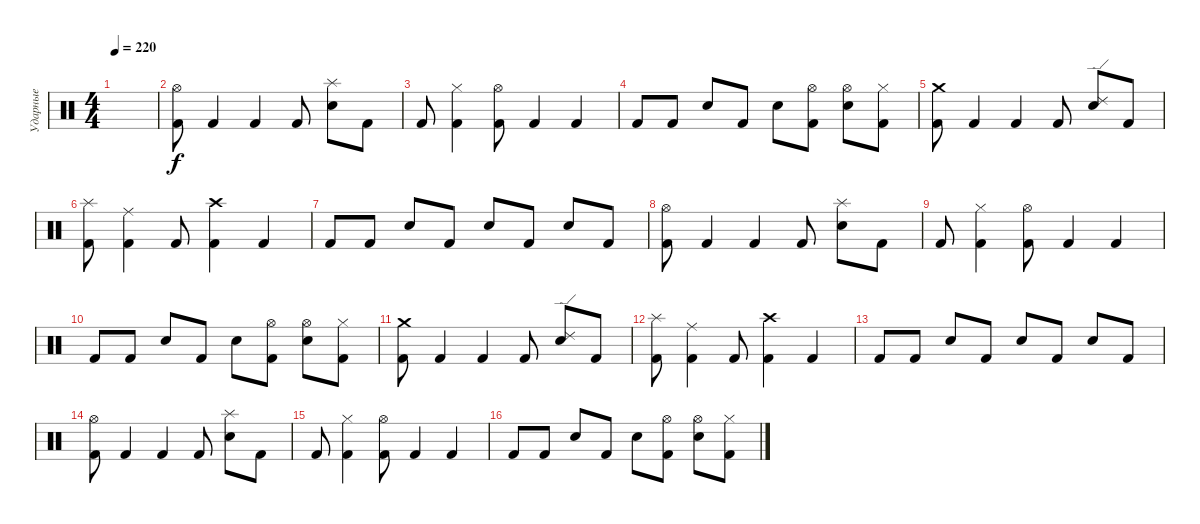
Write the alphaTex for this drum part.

\track ("Ударные" "Ударные") {instrument percussion}
\staff {score}
\articulation defaults
\ts (4 4)
\tempo 220
\clef neutral
\ks c
|
("Kick (hit) 2" "Hi-Hat (open)").8 "Kick (hit) 2".4 "Kick (hit) 2".4 "Kick (hit) 2".8 ("Snare (hit) 2" "Splash (hit)").8 "Kick (hit) 2".8 |
"Kick (hit) 2".8 ("Kick (hit) 2" "Hi-Hat (closed)").4 ("Kick (hit) 2" "Hi-Hat (open)").8 "Kick (hit) 2".4 "Kick (hit) 2".4 |
"Kick (hit) 2".8 "Kick (hit) 2".8 "Snare (hit) 2".8 "Kick (hit) 2".8 "Snare (hit) 2".8 ("Kick (hit) 2" "Hi-Hat (open)").8 ("Snare (hit) 2" "Hi-Hat (open)").8 ("Kick (hit) 2" "Hi-Hat (closed)").8 |
("Kick (hit) 2" "Crash medium (hit)").8 "Kick (hit) 2".4 "Kick (hit) 2".4 "Kick (hit) 2".8 ("Snare (hit) 2" "Ride (edge) 2").8 "Kick (hit) 2".8 |
("Kick (hit) 2" "Splash (hit)").8 ("Kick (hit) 2" "Ride (middle)").4 "Kick (hit) 2".8 ("Kick (hit) 2" "Crash high (hit)").4 "Kick (hit) 2".4 |
"Kick (hit) 2".8 "Kick (hit) 2".8 "Snare (hit) 2".8 "Kick (hit) 2".8 "Snare (hit) 2".8 "Kick (hit) 2".8 "Snare (hit) 2".8 "Kick (hit) 2".8 |
("Kick (hit) 2" "Hi-Hat (open)").8 "Kick (hit) 2".4 "Kick (hit) 2".4 "Kick (hit) 2".8 ("Snare (hit) 2" "Splash (hit)").8 "Kick (hit) 2".8 |
"Kick (hit) 2".8 ("Kick (hit) 2" "Hi-Hat (closed)").4 ("Kick (hit) 2" "Hi-Hat (open)").8 "Kick (hit) 2".4 "Kick (hit) 2".4 |
"Kick (hit) 2".8 "Kick (hit) 2".8 "Snare (hit) 2".8 "Kick (hit) 2".8 "Snare (hit) 2".8 ("Kick (hit) 2" "Hi-Hat (open)").8 ("Snare (hit) 2" "Hi-Hat (open)").8 ("Kick (hit) 2" "Hi-Hat (closed)").8 |
("Kick (hit) 2" "Crash medium (hit)").8 "Kick (hit) 2".4 "Kick (hit) 2".4 "Kick (hit) 2".8 ("Snare (hit) 2" "Ride (edge) 2").8 "Kick (hit) 2".8 |
("Kick (hit) 2" "Splash (hit)").8 ("Kick (hit) 2" "Ride (middle)").4 "Kick (hit) 2".8 ("Kick (hit) 2" "Crash high (hit)").4 "Kick (hit) 2".4 |
"Kick (hit) 2".8 "Kick (hit) 2".8 "Snare (hit) 2".8 "Kick (hit) 2".8 "Snare (hit) 2".8 "Kick (hit) 2".8 "Snare (hit) 2".8 "Kick (hit) 2".8 |
("Kick (hit) 2" "Hi-Hat (open)").8 "Kick (hit) 2".4 "Kick (hit) 2".4 "Kick (hit) 2".8 ("Snare (hit) 2" "Splash (hit)").8 "Kick (hit) 2".8 |
"Kick (hit) 2".8 ("Kick (hit) 2" "Hi-Hat (closed)").4 ("Kick (hit) 2" "Hi-Hat (open)").8 "Kick (hit) 2".4 "Kick (hit) 2".4 |
"Kick (hit) 2".8 "Kick (hit) 2".8 "Snare (hit) 2".8 "Kick (hit) 2".8 "Snare (hit) 2".8 ("Kick (hit) 2" "Hi-Hat (open)").8 ("Snare (hit) 2" "Hi-Hat (open)").8 ("Kick (hit) 2" "Hi-Hat (closed)").8
